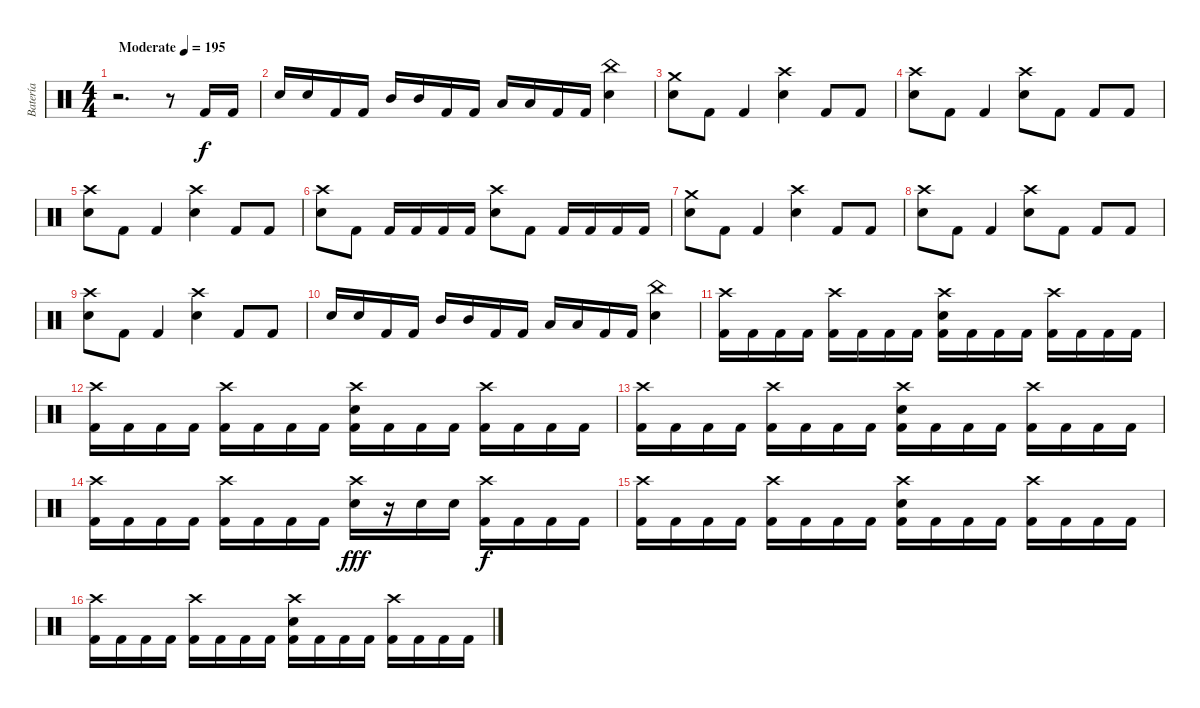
\track ("Batería" "Batería") {instrument percussion}
\staff {score}
\articulation defaults
\ts (4 4)
\tempo (195 "Moderate")
\clef neutral
\ks c
r.2{d dy f volume 0} r.8 "Kick (hit) 2".16 "Kick (hit) 2".16 |
"Snare (hit) 2".16{volume 13} "Snare (hit) 2".16 "Kick (hit) 2".16 "Kick (hit) 2".16 "Mid Tom (hit)".16 "Mid Tom (hit)".16 "Kick (hit) 2".16 "Kick (hit) 2".16 "Low Tom (hit)".16 "Low Tom (hit)".16 "Kick (hit) 2".16 "Kick (hit) 2".16 ("China (hit)" "Snare (hit) 2").4 |
("Crash medium (hit)" "Snare (hit) 2").8 "Kick (hit) 2".8 "Kick (hit) 2".4 ("Crash high (hit)" "Snare (hit) 2").4 "Kick (hit) 2".8 "Kick (hit) 2".8 |
("Crash high (hit)" "Snare (hit) 2").8 "Kick (hit) 2".8 "Kick (hit) 2".4 ("Crash high (hit)" "Snare (hit) 2").8 "Kick (hit) 2".8 "Kick (hit) 2".8 "Kick (hit) 2".8 |
("Crash high (hit)" "Snare (hit) 2").8 "Kick (hit) 2".8 "Kick (hit) 2".4 ("Crash high (hit)" "Snare (hit) 2").4 "Kick (hit) 2".8 "Kick (hit) 2".8 |
("Crash high (hit)" "Snare (hit) 2").8 "Kick (hit) 2".8 "Kick (hit) 2".16 "Kick (hit) 2".16 "Kick (hit) 2".16 "Kick (hit) 2".16 ("Crash high (hit)" "Snare (hit) 2").8 "Kick (hit) 2".8 "Kick (hit) 2".16 "Kick (hit) 2".16 "Kick (hit) 2".16 "Kick (hit) 2".16 |
("Crash medium (hit)" "Snare (hit) 2").8 "Kick (hit) 2".8 "Kick (hit) 2".4 ("Crash high (hit)" "Snare (hit) 2").4 "Kick (hit) 2".8 "Kick (hit) 2".8 |
("Crash high (hit)" "Snare (hit) 2").8 "Kick (hit) 2".8 "Kick (hit) 2".4 ("Crash high (hit)" "Snare (hit) 2").8 "Kick (hit) 2".8 "Kick (hit) 2".8 "Kick (hit) 2".8 |
("Crash high (hit)" "Snare (hit) 2").8 "Kick (hit) 2".8 "Kick (hit) 2".4 ("Crash high (hit)" "Snare (hit) 2").4 "Kick (hit) 2".8 "Kick (hit) 2".8 |
"Snare (hit) 2".16 "Snare (hit) 2".16 "Kick (hit) 2".16 "Kick (hit) 2".16 "Mid Tom (hit)".16 "Mid Tom (hit)".16 "Kick (hit) 2".16 "Kick (hit) 2".16 "Low Tom (hit)".16 "Low Tom (hit)".16 "Kick (hit) 2".16 "Kick (hit) 2".16 ("China (hit)" "Snare (hit) 2").4 |
("Crash high (hit)" "Kick (hit) 2").16 "Kick (hit) 2".16 "Kick (hit) 2".16 "Kick (hit) 2".16 ("Crash high (hit)" "Kick (hit) 2").16 "Kick (hit) 2".16 "Kick (hit) 2".16 "Kick (hit) 2".16 ("Crash high (hit)" "Snare (hit) 2" "Kick (hit) 2").16 "Kick (hit) 2".16 "Kick (hit) 2".16 "Kick (hit) 2".16 ("Crash high (hit)" "Kick (hit) 2").16 "Kick (hit) 2".16 "Kick (hit) 2".16 "Kick (hit) 2".16 |
("Crash high (hit)" "Kick (hit) 2").16 "Kick (hit) 2".16 "Kick (hit) 2".16 "Kick (hit) 2".16 ("Crash high (hit)" "Kick (hit) 2").16 "Kick (hit) 2".16 "Kick (hit) 2".16 "Kick (hit) 2".16 ("Crash high (hit)" "Snare (hit) 2" "Kick (hit) 2").16 "Kick (hit) 2".16 "Kick (hit) 2".16 "Kick (hit) 2".16 ("Crash high (hit)" "Kick (hit) 2").16 "Kick (hit) 2".16 "Kick (hit) 2".16 "Kick (hit) 2".16 |
("Crash high (hit)" "Kick (hit) 2").16 "Kick (hit) 2".16 "Kick (hit) 2".16 "Kick (hit) 2".16 ("Crash high (hit)" "Kick (hit) 2").16 "Kick (hit) 2".16 "Kick (hit) 2".16 "Kick (hit) 2".16 ("Crash high (hit)" "Snare (hit) 2" "Kick (hit) 2").16 "Kick (hit) 2".16 "Kick (hit) 2".16 "Kick (hit) 2".16 ("Crash high (hit)" "Kick (hit) 2").16 "Kick (hit) 2".16 "Kick (hit) 2".16 "Kick (hit) 2".16 |
("Crash high (hit)" "Kick (hit) 2").16 "Kick (hit) 2".16 "Kick (hit) 2".16 "Kick (hit) 2".16 ("Crash high (hit)" "Kick (hit) 2").16 "Kick (hit) 2".16 "Kick (hit) 2".16 "Kick (hit) 2".16 ("Crash high (hit)" "Snare (hit) 2").16{dy fff} r.16 "Snare (hit) 2".16 "Snare (hit) 2".16 ("Crash high (hit)" "Kick (hit) 2").16{dy f} "Kick (hit) 2".16 "Kick (hit) 2".16 "Kick (hit) 2".16 |
("Crash high (hit)" "Kick (hit) 2").16 "Kick (hit) 2".16 "Kick (hit) 2".16 "Kick (hit) 2".16 ("Crash high (hit)" "Kick (hit) 2").16 "Kick (hit) 2".16 "Kick (hit) 2".16 "Kick (hit) 2".16 ("Crash high (hit)" "Snare (hit) 2" "Kick (hit) 2").16 "Kick (hit) 2".16 "Kick (hit) 2".16 "Kick (hit) 2".16 ("Crash high (hit)" "Kick (hit) 2").16 "Kick (hit) 2".16 "Kick (hit) 2".16 "Kick (hit) 2".16 |
("Crash high (hit)" "Kick (hit) 2").16 "Kick (hit) 2".16 "Kick (hit) 2".16 "Kick (hit) 2".16 ("Crash high (hit)" "Kick (hit) 2").16 "Kick (hit) 2".16 "Kick (hit) 2".16 "Kick (hit) 2".16 ("Crash high (hit)" "Snare (hit) 2" "Kick (hit) 2").16 "Kick (hit) 2".16 "Kick (hit) 2".16 "Kick (hit) 2".16 ("Crash high (hit)" "Kick (hit) 2").16 "Kick (hit) 2".16 "Kick (hit) 2".16 "Kick (hit) 2".16
